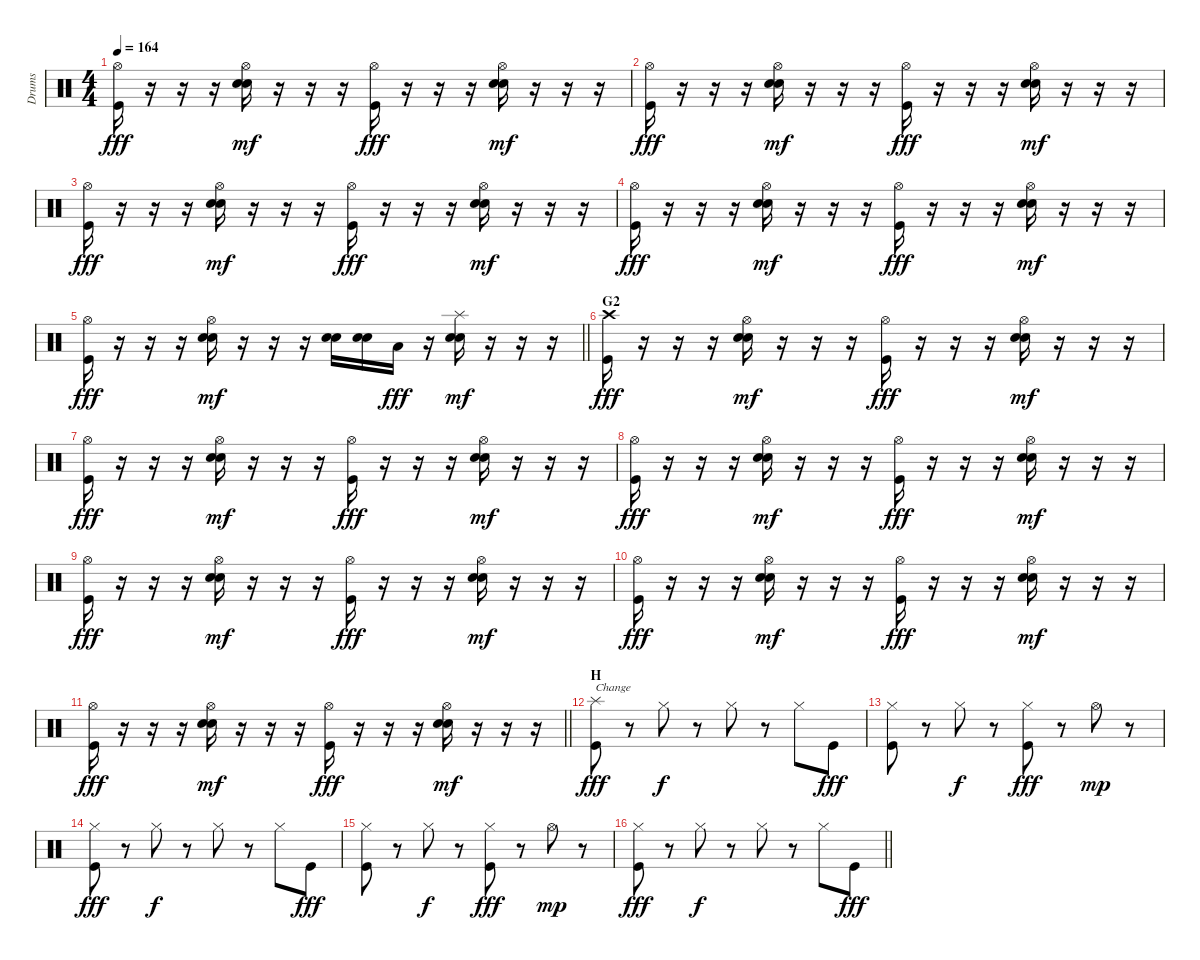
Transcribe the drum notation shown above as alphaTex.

\track ("Drums" "Drums") {instrument percussion}
\staff {score}
\articulation defaults
\ts (4 4)
\tempo 164
\clef neutral
\ks c
("Hi-Hat (open)" "Kick (hit)").16{dy fff} r.16 r.16 r.16 ("Hi-Hat (open)" "Electric Snare (hit)" "Snare (hit) 2").16{dy mf} r.16 r.16 r.16 ("Hi-Hat (open)" "Kick (hit)").16{dy fff} r.16 r.16 r.16 ("Hi-Hat (open)" "Electric Snare (hit)" "Snare (hit) 2").16{dy mf} r.16 r.16 r.16 |
("Hi-Hat (open)" "Kick (hit)").16{dy fff} r.16 r.16 r.16 ("Hi-Hat (open)" "Electric Snare (hit)" "Snare (hit) 2").16{dy mf} r.16 r.16 r.16 ("Hi-Hat (open)" "Kick (hit)").16{dy fff} r.16 r.16 r.16 ("Hi-Hat (open)" "Electric Snare (hit)" "Snare (hit) 2").16{dy mf} r.16 r.16 r.16 |
("Hi-Hat (open)" "Kick (hit)").16{dy fff} r.16 r.16 r.16 ("Hi-Hat (open)" "Electric Snare (hit)" "Snare (hit) 2").16{dy mf} r.16 r.16 r.16 ("Hi-Hat (open)" "Kick (hit)").16{dy fff} r.16 r.16 r.16 ("Hi-Hat (open)" "Electric Snare (hit)" "Snare (hit) 2").16{dy mf} r.16 r.16 r.16 |
("Hi-Hat (open)" "Kick (hit)").16{dy fff} r.16 r.16 r.16 ("Hi-Hat (open)" "Electric Snare (hit)" "Snare (hit) 2").16{dy mf} r.16 r.16 r.16 ("Hi-Hat (open)" "Kick (hit)").16{dy fff} r.16 r.16 r.16 ("Hi-Hat (open)" "Electric Snare (hit)" "Snare (hit) 2").16{dy mf} r.16 r.16 r.16 |
\barLineRight lightlight
("Hi-Hat (open)" "Kick (hit)").16{dy fff} r.16 r.16 r.16 ("Hi-Hat (open)" "Electric Snare (hit)" "Snare (hit) 2").16{dy mf} r.16 r.16 r.16 ("Electric Snare (hit)" "Snare (hit) 2").16 ("Electric Snare (hit)" "Snare (hit) 2").16 "Low Tom (hit)".16{dy fff} r.16 ("Splash (hit)" "Electric Snare (hit)" "Snare (hit) 2").16{dy mf} r.16 r.16 r.16 |
\section ("" "G2")
("Crash high (hit)" "Kick (hit)").16{dy fff} r.16 r.16 r.16 ("Hi-Hat (open)" "Electric Snare (hit)" "Snare (hit) 2").16{dy mf} r.16 r.16 r.16 ("Hi-Hat (open)" "Kick (hit)").16{dy fff} r.16 r.16 r.16 ("Hi-Hat (open)" "Electric Snare (hit)" "Snare (hit) 2").16{dy mf} r.16 r.16 r.16 |
("Hi-Hat (open)" "Kick (hit)").16{dy fff} r.16 r.16 r.16 ("Hi-Hat (open)" "Electric Snare (hit)" "Snare (hit) 2").16{dy mf} r.16 r.16 r.16 ("Hi-Hat (open)" "Kick (hit)").16{dy fff} r.16 r.16 r.16 ("Hi-Hat (open)" "Electric Snare (hit)" "Snare (hit) 2").16{dy mf} r.16 r.16 r.16 |
("Hi-Hat (open)" "Kick (hit)").16{dy fff} r.16 r.16 r.16 ("Hi-Hat (open)" "Electric Snare (hit)" "Snare (hit) 2").16{dy mf} r.16 r.16 r.16 ("Hi-Hat (open)" "Kick (hit)").16{dy fff} r.16 r.16 r.16 ("Hi-Hat (open)" "Electric Snare (hit)" "Snare (hit) 2").16{dy mf} r.16 r.16 r.16 |
("Hi-Hat (open)" "Kick (hit)").16{dy fff} r.16 r.16 r.16 ("Hi-Hat (open)" "Electric Snare (hit)" "Snare (hit) 2").16{dy mf} r.16 r.16 r.16 ("Hi-Hat (open)" "Kick (hit)").16{dy fff} r.16 r.16 r.16 ("Hi-Hat (open)" "Electric Snare (hit)" "Snare (hit) 2").16{dy mf} r.16 r.16 r.16 |
("Hi-Hat (open)" "Kick (hit)").16{dy fff} r.16 r.16 r.16 ("Hi-Hat (open)" "Electric Snare (hit)" "Snare (hit) 2").16{dy mf} r.16 r.16 r.16 ("Hi-Hat (open)" "Kick (hit)").16{dy fff} r.16 r.16 r.16 ("Hi-Hat (open)" "Electric Snare (hit)" "Snare (hit) 2").16{dy mf} r.16 r.16 r.16 |
\barLineRight lightlight
("Hi-Hat (open)" "Kick (hit)").16{dy fff} r.16 r.16 r.16 ("Hi-Hat (open)" "Electric Snare (hit)" "Snare (hit) 2").16{dy mf} r.16 r.16 r.16 ("Hi-Hat (open)" "Kick (hit)").16{dy fff} r.16 r.16 r.16 ("Hi-Hat (open)" "Electric Snare (hit)" "Snare (hit) 2").16{dy mf} r.16 r.16 r.16 |
\section ("" "H")
("Splash (hit)" "Kick (hit)").8{txt "Change" dy fff} r.8 "Hi-Hat (closed)".8{dy f} r.8 "Hi-Hat (closed)".8 r.8 "Hi-Hat (closed)".8 "Kick (hit)".8{dy fff} |
("Hi-Hat (closed)" "Kick (hit)").8 r.8 "Hi-Hat (closed)".8{dy f} r.8 ("Hi-Hat (closed)" "Kick (hit)").8{dy fff} r.8 "Hi-Hat (open)".8{dy mp} r.8 |
("Hi-Hat (closed)" "Kick (hit)").8{dy fff} r.8 "Hi-Hat (closed)".8{dy f} r.8 "Hi-Hat (closed)".8 r.8 "Hi-Hat (closed)".8 "Kick (hit)".8{dy fff} |
("Hi-Hat (closed)" "Kick (hit)").8 r.8 "Hi-Hat (closed)".8{dy f} r.8 ("Hi-Hat (closed)" "Kick (hit)").8{dy fff} r.8 "Hi-Hat (open)".8{dy mp} r.8 |
\barLineRight lightlight
("Hi-Hat (closed)" "Kick (hit)").8{dy fff} r.8 "Hi-Hat (closed)".8{dy f} r.8 "Hi-Hat (closed)".8 r.8 "Hi-Hat (closed)".8 "Kick (hit)".8{dy fff}
